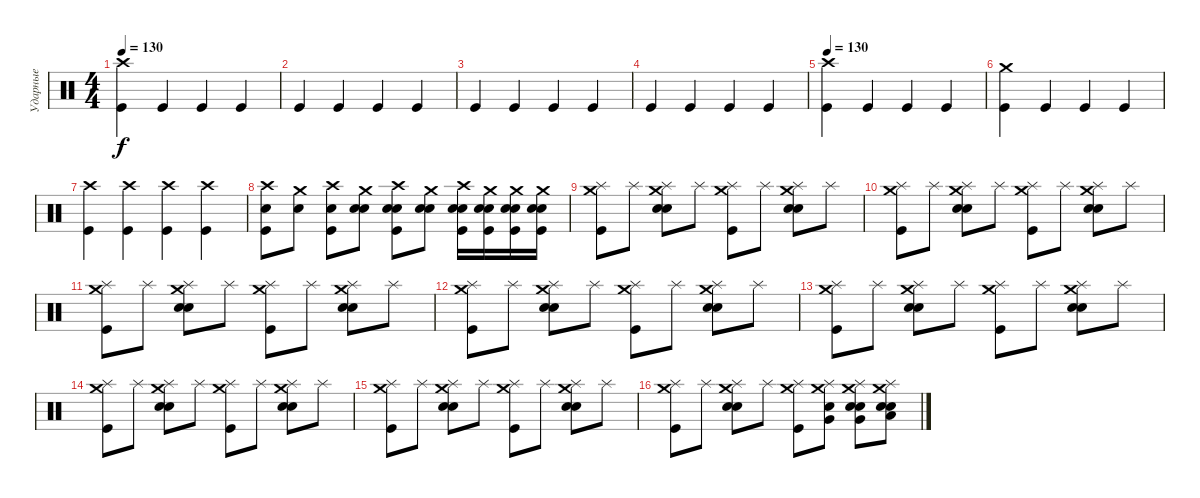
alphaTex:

\track ("Ударные" "Ударные") {instrument percussion}
\staff {score}
\articulation defaults
\ts (4 4)
\tempo 130
\clef neutral
\ks c
("Crash high (hit)" "Kick (hit)").4{dy f} "Kick (hit)".4 "Kick (hit)".4 "Kick (hit)".4 |
"Kick (hit)".4 "Kick (hit)".4 "Kick (hit)".4 "Kick (hit)".4 |
"Kick (hit)".4 "Kick (hit)".4 "Kick (hit)".4 "Kick (hit)".4 |
"Kick (hit)".4 "Kick (hit)".4 "Kick (hit)".4 "Kick (hit)".4 |
\tempo 130
("Crash high (hit)" "Kick (hit)").4 "Kick (hit)".4 "Kick (hit)".4 "Kick (hit)".4 |
("Crash medium (hit)" "Kick (hit)").4 "Kick (hit)".4 "Kick (hit)".4 "Kick (hit)".4 |
("Crash high (hit)" "Kick (hit)").4 ("Crash high (hit)" "Kick (hit)").4 ("Crash high (hit)" "Kick (hit)").4 ("Crash high (hit)" "Kick (hit)").4 |
("Crash high (hit)" "Snare (hit) 2" "Kick (hit)").8 ("Crash medium (hit)" "Snare (hit) 2").8 ("Crash high (hit)" "Snare (hit) 2" "Kick (hit)").8 ("Crash medium (hit)" "Snare (hit) 2" "Snare (hit) 2").8 ("Crash high (hit)" "Electric Snare (hit)" "Electric Snare (hit)" "Kick (hit)").8 ("Crash medium (hit)" "Electric Snare (hit)" "Electric Snare (hit)").8 ("Crash high (hit)" "Electric Snare (hit)" "Electric Snare (hit)" "Kick (hit)").16 ("Crash medium (hit)" "Electric Snare (hit)" "Electric Snare (hit)" "Kick (hit)").16 ("Crash medium (hit)" "Electric Snare (hit)" "Electric Snare (hit)" "Kick (hit)").16 ("Crash medium (hit)" "Electric Snare (hit)" "Electric Snare (hit)" "Kick (hit)").16 |
("Splash (hit)" "Crash medium (hit)" "Kick (hit)").8 "Splash (hit)".8 ("Splash (hit)" "Crash medium (hit)" "Electric Snare (hit)" "Electric Snare (hit)").8 "Splash (hit)".8 ("Splash (hit)" "Crash medium (hit)" "Kick (hit)").8 "Splash (hit)".8 ("Splash (hit)" "Crash medium (hit)" "Electric Snare (hit)" "Electric Snare (hit)").8 "Splash (hit)".8 |
("Splash (hit)" "Crash medium (hit)" "Kick (hit)").8 "Splash (hit)".8 ("Splash (hit)" "Crash medium (hit)" "Electric Snare (hit)" "Electric Snare (hit)").8 "Splash (hit)".8 ("Splash (hit)" "Crash medium (hit)" "Kick (hit)").8 "Splash (hit)".8 ("Splash (hit)" "Crash medium (hit)" "Electric Snare (hit)" "Electric Snare (hit)").8 "Splash (hit)".8 |
("Splash (hit)" "Crash medium (hit)" "Kick (hit)").8 "Splash (hit)".8 ("Splash (hit)" "Crash medium (hit)" "Electric Snare (hit)" "Electric Snare (hit)").8 "Splash (hit)".8 ("Splash (hit)" "Crash medium (hit)" "Kick (hit)").8 "Splash (hit)".8 ("Splash (hit)" "Crash medium (hit)" "Electric Snare (hit)" "Electric Snare (hit)").8 "Splash (hit)".8 |
("Splash (hit)" "Crash medium (hit)" "Kick (hit)").8 "Splash (hit)".8 ("Splash (hit)" "Crash medium (hit)" "Electric Snare (hit)" "Electric Snare (hit)").8 "Splash (hit)".8 ("Splash (hit)" "Crash medium (hit)" "Kick (hit)").8 "Splash (hit)".8 ("Splash (hit)" "Crash medium (hit)" "Electric Snare (hit)" "Electric Snare (hit)").8 "Splash (hit)".8 |
("Splash (hit)" "Crash medium (hit)" "Kick (hit)").8 "Splash (hit)".8 ("Splash (hit)" "Crash medium (hit)" "Electric Snare (hit)" "Electric Snare (hit)").8 "Splash (hit)".8 ("Splash (hit)" "Crash medium (hit)" "Kick (hit)").8 "Splash (hit)".8 ("Splash (hit)" "Crash medium (hit)" "Electric Snare (hit)" "Electric Snare (hit)").8 "Splash (hit)".8 |
("Splash (hit)" "Crash medium (hit)" "Kick (hit)").8 "Splash (hit)".8 ("Splash (hit)" "Crash medium (hit)" "Electric Snare (hit)" "Electric Snare (hit)").8 "Splash (hit)".8 ("Splash (hit)" "Crash medium (hit)" "Kick (hit)").8 "Splash (hit)".8 ("Splash (hit)" "Crash medium (hit)" "Electric Snare (hit)" "Electric Snare (hit)").8 "Splash (hit)".8 |
("Splash (hit)" "Crash medium (hit)" "Kick (hit)").8 "Splash (hit)".8 ("Splash (hit)" "Crash medium (hit)" "Electric Snare (hit)" "Electric Snare (hit)").8 "Splash (hit)".8 ("Splash (hit)" "Crash medium (hit)" "Kick (hit)").8 "Splash (hit)".8 ("Splash (hit)" "Crash medium (hit)" "Electric Snare (hit)" "Electric Snare (hit)").8 "Splash (hit)".8 |
("Splash (hit)" "Crash medium (hit)" "Kick (hit)").8 "Splash (hit)".8 ("Splash (hit)" "Crash medium (hit)" "Electric Snare (hit)" "Electric Snare (hit)").8 "Splash (hit)".8 ("Splash (hit)" "Crash medium (hit)" "Kick (hit)").8 ("Splash (hit)" "Crash medium (hit)" "Very Low Tom (hit)" "Electric Snare (hit)").8 ("Splash (hit)" "Crash medium (hit)" "Very Low Tom (hit)" "Electric Snare (hit)" "Electric Snare (hit)").8 ("Splash (hit)" "Crash medium (hit)" "Low Floor Tom (hit)" "Electric Snare (hit)" "Electric Snare (hit)").8
